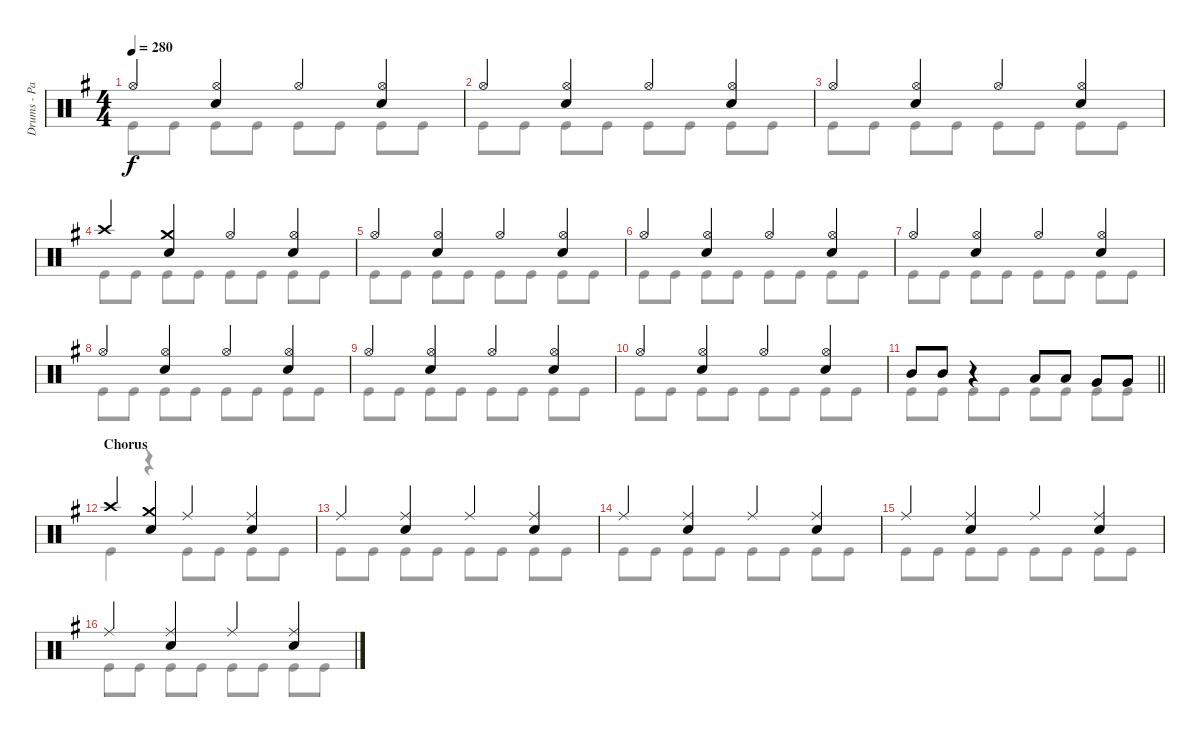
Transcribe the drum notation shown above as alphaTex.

\track ("Drums - Patrick Johansson" "Drums - Pa") {instrument percussion}
\staff {score}
\articulation defaults
\voice
\ts (4 4)
\tempo 280
\clef neutral
\ks eminor "Hi-Hat (open)".4{dy f}
("Hi-Hat (open)" "Snare (hit) 2").4 "Hi-Hat (open)".4 ("Hi-Hat (open)" "Snare (hit) 2").4 |
"Hi-Hat (open)".4 ("Hi-Hat (open)" "Snare (hit) 2").4 "Hi-Hat (open)".4 ("Hi-Hat (open)" "Snare (hit) 2").4 |
"Hi-Hat (open)".4 ("Hi-Hat (open)" "Snare (hit) 2").4 "Hi-Hat (open)".4 ("Hi-Hat (open)" "Snare (hit) 2").4 |
"Crash high (hit)".4 ("Crash medium (hit)" "Snare (hit) 2").4 "Hi-Hat (open)".4 ("Hi-Hat (open)" "Snare (hit) 2").4 |
"Hi-Hat (open)".4 ("Hi-Hat (open)" "Snare (hit) 2").4 "Hi-Hat (open)".4 ("Hi-Hat (open)" "Snare (hit) 2").4 |
"Hi-Hat (open)".4 ("Hi-Hat (open)" "Snare (hit) 2").4 "Hi-Hat (open)".4 ("Hi-Hat (open)" "Snare (hit) 2").4 |
"Hi-Hat (open)".4 ("Hi-Hat (open)" "Snare (hit) 2").4 "Hi-Hat (open)".4 ("Hi-Hat (open)" "Snare (hit) 2").4 |
"Hi-Hat (open)".4 ("Hi-Hat (open)" "Snare (hit) 2").4 "Hi-Hat (open)".4 ("Hi-Hat (open)" "Snare (hit) 2").4 |
"Hi-Hat (open)".4 ("Hi-Hat (open)" "Snare (hit) 2").4 "Hi-Hat (open)".4 ("Hi-Hat (open)" "Snare (hit) 2").4 |
"Hi-Hat (open)".4 ("Hi-Hat (open)" "Snare (hit) 2").4 "Hi-Hat (open)".4 ("Hi-Hat (open)" "Snare (hit) 2").4 |
\barLineRight lightlight "Mid Tom (hit)".8 "Mid Tom (hit)".8
r.4 "Low Tom (hit)".8 "Low Tom (hit)".8 "Very Low Tom (hit)".8 "Very Low Tom (hit)".8 |
\section ("" "Chorus")
"Crash high (hit)".4 ("Crash medium (hit)" "Snare (hit) 2").4 "Ride (middle)".4 ("Ride (middle)" "Snare (hit) 2").4 |
"Ride (middle)".4 ("Ride (middle)" "Snare (hit) 2").4 "Ride (middle)".4 ("Ride (middle)" "Snare (hit) 2").4 |
"Ride (middle)".4 ("Ride (middle)" "Snare (hit) 2").4 "Ride (middle)".4 ("Ride (middle)" "Snare (hit) 2").4 |
"Ride (middle)".4 ("Ride (middle)" "Snare (hit) 2").4 "Ride (middle)".4 ("Ride (middle)" "Snare (hit) 2").4 |
"Ride (middle)".4 ("Ride (middle)" "Snare (hit) 2").4 "Ride (middle)".4 ("Ride (middle)" "Snare (hit) 2").4
\voice
\clef neutral
\ottava regular
\simile none
\ks eminor "Kick (hit)".8{dy f} "Kick (hit)".8 "Kick (hit)".8 "Kick (hit)".8 "Kick (hit)".8 "Kick (hit)".8 "Kick (hit)".8 "Kick (hit)".8
|
"Kick (hit)".8 "Kick (hit)".8 "Kick (hit)".8 "Kick (hit)".8 "Kick (hit)".8 "Kick (hit)".8 "Kick (hit)".8 "Kick (hit)".8 |
"Kick (hit)".8 "Kick (hit)".8 "Kick (hit)".8 "Kick (hit)".8 "Kick (hit)".8 "Kick (hit)".8 "Kick (hit)".8 "Kick (hit)".8 |
"Kick (hit)".8 "Kick (hit)".8 "Kick (hit)".8 "Kick (hit)".8 "Kick (hit)".8 "Kick (hit)".8 "Kick (hit)".8 "Kick (hit)".8 |
"Kick (hit)".8 "Kick (hit)".8 "Kick (hit)".8 "Kick (hit)".8 "Kick (hit)".8 "Kick (hit)".8 "Kick (hit)".8 "Kick (hit)".8 |
"Kick (hit)".8 "Kick (hit)".8 "Kick (hit)".8 "Kick (hit)".8 "Kick (hit)".8 "Kick (hit)".8 "Kick (hit)".8 "Kick (hit)".8 |
"Kick (hit)".8 "Kick (hit)".8 "Kick (hit)".8 "Kick (hit)".8 "Kick (hit)".8 "Kick (hit)".8 "Kick (hit)".8 "Kick (hit)".8 |
"Kick (hit)".8 "Kick (hit)".8 "Kick (hit)".8 "Kick (hit)".8 "Kick (hit)".8 "Kick (hit)".8 "Kick (hit)".8 "Kick (hit)".8 |
"Kick (hit)".8 "Kick (hit)".8 "Kick (hit)".8 "Kick (hit)".8 "Kick (hit)".8 "Kick (hit)".8 "Kick (hit)".8 "Kick (hit)".8 |
"Kick (hit)".8 "Kick (hit)".8 "Kick (hit)".8 "Kick (hit)".8 "Kick (hit)".8 "Kick (hit)".8 "Kick (hit)".8 "Kick (hit)".8 |
\barLineRight lightlight "Kick (hit)".8 "Kick (hit)".8 "Kick (hit)".8 "Kick (hit)".8 "Kick (hit)".8 "Kick (hit)".8 "Kick (hit)".8 "Kick (hit)".8
|
"Kick (hit)".4 r.4 "Kick (hit)".8 "Kick (hit)".8 "Kick (hit)".8 "Kick (hit)".8 |
"Kick (hit)".8 "Kick (hit)".8 "Kick (hit)".8 "Kick (hit)".8 "Kick (hit)".8 "Kick (hit)".8 "Kick (hit)".8 "Kick (hit)".8 |
"Kick (hit)".8 "Kick (hit)".8 "Kick (hit)".8 "Kick (hit)".8 "Kick (hit)".8 "Kick (hit)".8 "Kick (hit)".8 "Kick (hit)".8 |
"Kick (hit)".8 "Kick (hit)".8 "Kick (hit)".8 "Kick (hit)".8 "Kick (hit)".8 "Kick (hit)".8 "Kick (hit)".8 "Kick (hit)".8 |
"Kick (hit)".8 "Kick (hit)".8 "Kick (hit)".8 "Kick (hit)".8 "Kick (hit)".8 "Kick (hit)".8 "Kick (hit)".8 "Kick (hit)".8
